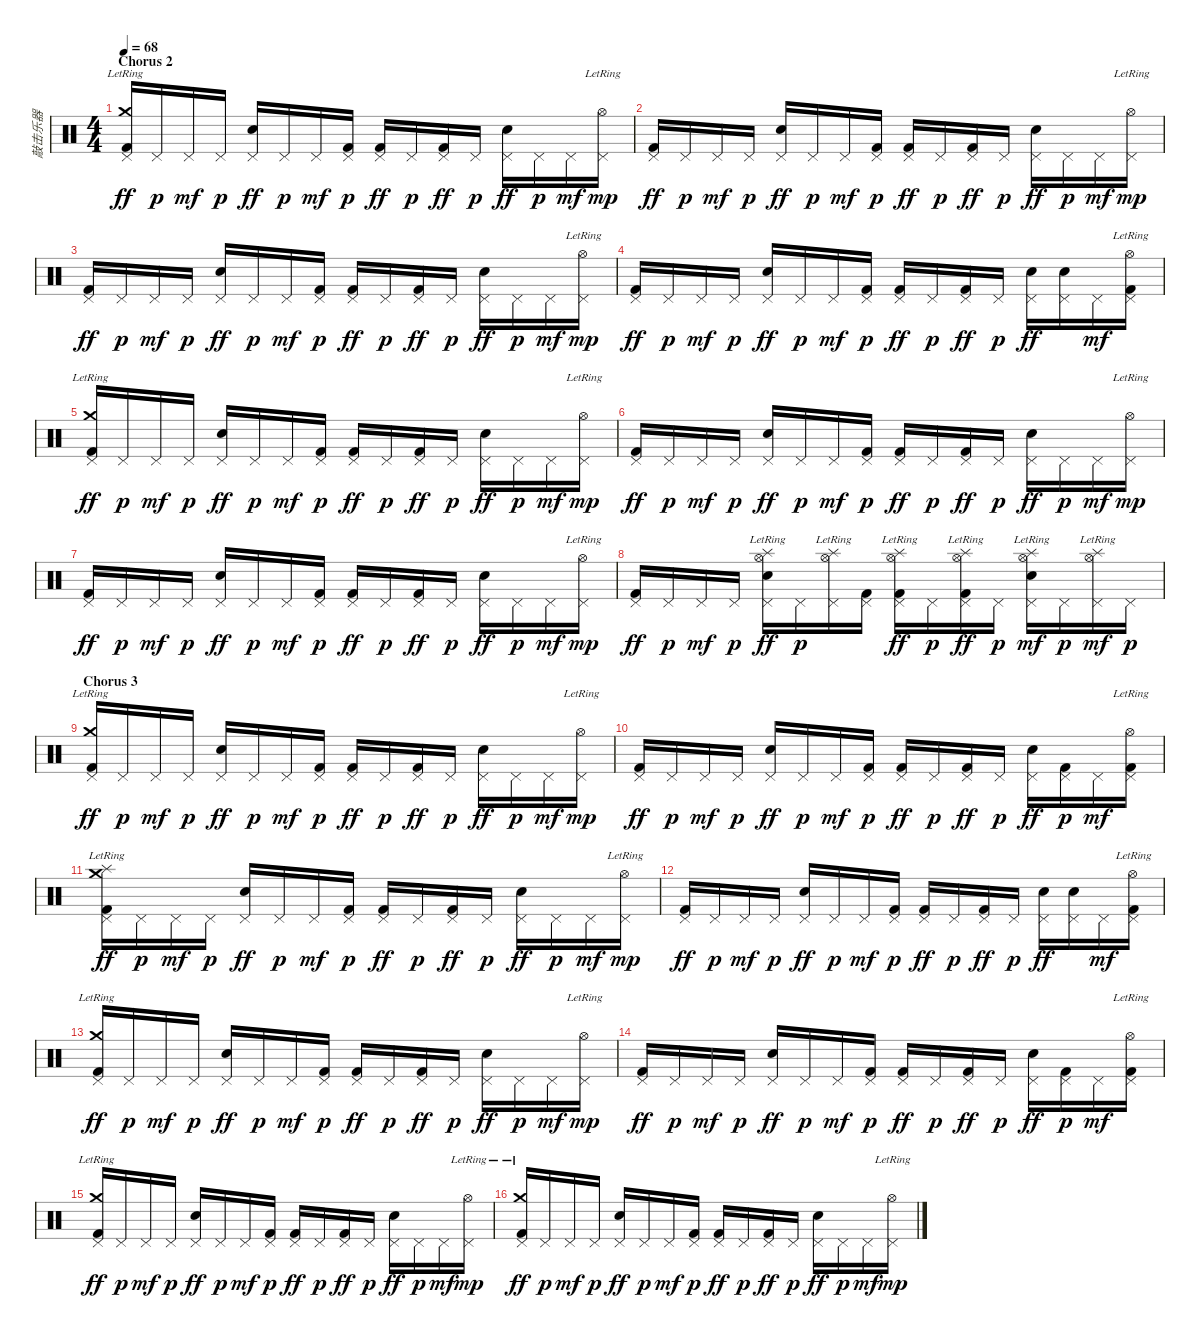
\track ("敲击乐器" "敲击乐器") {instrument percussion}
\staff {score}
\articulation defaults
\ts (4 4)
\section ("" "Chorus 2")
\tempo 68
\clef neutral
\ks c
("Pedal Hi-Hat (hit)" "Crash medium (hit)"{lr} "Kick (hit) 2").16{dy ff} "Pedal Hi-Hat (hit)".16{dy p} "Pedal Hi-Hat (hit)".16{dy mf} "Pedal Hi-Hat (hit)".16{dy p} ("Pedal Hi-Hat (hit)" "Electric Snare (hit)").16{dy ff} "Pedal Hi-Hat (hit)".16{dy p} "Pedal Hi-Hat (hit)".16{dy mf} ("Pedal Hi-Hat (hit)" "Kick (hit) 2").16{dy p} ("Pedal Hi-Hat (hit)" "Kick (hit) 2").16{dy ff} "Pedal Hi-Hat (hit)".16{dy p} ("Pedal Hi-Hat (hit)" "Kick (hit) 2").16{dy ff} "Pedal Hi-Hat (hit)".16{dy p} ("Pedal Hi-Hat (hit)" "Electric Snare (hit)").16{dy ff} "Pedal Hi-Hat (hit)".16{dy p} "Pedal Hi-Hat (hit)".16{dy mf} ("Pedal Hi-Hat (hit)" "Hi-Hat (open)"{lr}).16{dy mp} |
("Pedal Hi-Hat (hit)" "Kick (hit) 2").16{dy ff} "Pedal Hi-Hat (hit)".16{dy p} "Pedal Hi-Hat (hit)".16{dy mf} "Pedal Hi-Hat (hit)".16{dy p} ("Pedal Hi-Hat (hit)" "Electric Snare (hit)").16{dy ff} "Pedal Hi-Hat (hit)".16{dy p} "Pedal Hi-Hat (hit)".16{dy mf} ("Pedal Hi-Hat (hit)" "Kick (hit) 2").16{dy p} ("Pedal Hi-Hat (hit)" "Kick (hit) 2").16{dy ff} "Pedal Hi-Hat (hit)".16{dy p} ("Pedal Hi-Hat (hit)" "Kick (hit) 2").16{dy ff} "Pedal Hi-Hat (hit)".16{dy p} ("Pedal Hi-Hat (hit)" "Electric Snare (hit)").16{dy ff} "Pedal Hi-Hat (hit)".16{dy p} "Pedal Hi-Hat (hit)".16{dy mf} ("Pedal Hi-Hat (hit)" "Hi-Hat (open)"{lr}).16{dy mp} |
("Pedal Hi-Hat (hit)" "Kick (hit) 2").16{dy ff} "Pedal Hi-Hat (hit)".16{dy p} "Pedal Hi-Hat (hit)".16{dy mf} "Pedal Hi-Hat (hit)".16{dy p} ("Pedal Hi-Hat (hit)" "Electric Snare (hit)").16{dy ff} "Pedal Hi-Hat (hit)".16{dy p} "Pedal Hi-Hat (hit)".16{dy mf} ("Pedal Hi-Hat (hit)" "Kick (hit) 2").16{dy p} ("Pedal Hi-Hat (hit)" "Kick (hit) 2").16{dy ff} "Pedal Hi-Hat (hit)".16{dy p} ("Pedal Hi-Hat (hit)" "Kick (hit) 2").16{dy ff} "Pedal Hi-Hat (hit)".16{dy p} ("Pedal Hi-Hat (hit)" "Electric Snare (hit)").16{dy ff} "Pedal Hi-Hat (hit)".16{dy p} "Pedal Hi-Hat (hit)".16{dy mf} ("Pedal Hi-Hat (hit)" "Hi-Hat (open)"{lr}).16{dy mp} |
("Pedal Hi-Hat (hit)" "Kick (hit) 2").16{dy ff} "Pedal Hi-Hat (hit)".16{dy p} "Pedal Hi-Hat (hit)".16{dy mf} "Pedal Hi-Hat (hit)".16{dy p} ("Pedal Hi-Hat (hit)" "Electric Snare (hit)").16{dy ff} "Pedal Hi-Hat (hit)".16{dy p} "Pedal Hi-Hat (hit)".16{dy mf} ("Pedal Hi-Hat (hit)" "Kick (hit) 2").16{dy p} ("Pedal Hi-Hat (hit)" "Kick (hit) 2").16{dy ff} "Pedal Hi-Hat (hit)".16{dy p} ("Pedal Hi-Hat (hit)" "Kick (hit) 2").16{dy ff} "Pedal Hi-Hat (hit)".16{dy p} ("Pedal Hi-Hat (hit)" "Electric Snare (hit)").16{dy ff} ("Pedal Hi-Hat (hit)" "Electric Snare (hit)").16 "Pedal Hi-Hat (hit)".16{dy mf} ("Pedal Hi-Hat (hit)" "Hi-Hat (open)"{lr} "Kick (hit) 2").16 |
("Pedal Hi-Hat (hit)" "Crash medium (hit)"{lr} "Kick (hit) 2").16{dy ff} "Pedal Hi-Hat (hit)".16{dy p} "Pedal Hi-Hat (hit)".16{dy mf} "Pedal Hi-Hat (hit)".16{dy p} ("Pedal Hi-Hat (hit)" "Electric Snare (hit)").16{dy ff} "Pedal Hi-Hat (hit)".16{dy p} "Pedal Hi-Hat (hit)".16{dy mf} ("Pedal Hi-Hat (hit)" "Kick (hit) 2").16{dy p} ("Pedal Hi-Hat (hit)" "Kick (hit) 2").16{dy ff} "Pedal Hi-Hat (hit)".16{dy p} ("Pedal Hi-Hat (hit)" "Kick (hit) 2").16{dy ff} "Pedal Hi-Hat (hit)".16{dy p} ("Pedal Hi-Hat (hit)" "Electric Snare (hit)").16{dy ff} "Pedal Hi-Hat (hit)".16{dy p} "Pedal Hi-Hat (hit)".16{dy mf} ("Pedal Hi-Hat (hit)" "Hi-Hat (open)"{lr}).16{dy mp} |
("Pedal Hi-Hat (hit)" "Kick (hit) 2").16{dy ff} "Pedal Hi-Hat (hit)".16{dy p} "Pedal Hi-Hat (hit)".16{dy mf} "Pedal Hi-Hat (hit)".16{dy p} ("Pedal Hi-Hat (hit)" "Electric Snare (hit)").16{dy ff} "Pedal Hi-Hat (hit)".16{dy p} "Pedal Hi-Hat (hit)".16{dy mf} ("Pedal Hi-Hat (hit)" "Kick (hit) 2").16{dy p} ("Pedal Hi-Hat (hit)" "Kick (hit) 2").16{dy ff} "Pedal Hi-Hat (hit)".16{dy p} ("Pedal Hi-Hat (hit)" "Kick (hit) 2").16{dy ff} "Pedal Hi-Hat (hit)".16{dy p} ("Pedal Hi-Hat (hit)" "Electric Snare (hit)").16{dy ff} "Pedal Hi-Hat (hit)".16{dy p} "Pedal Hi-Hat (hit)".16{dy mf} ("Pedal Hi-Hat (hit)" "Hi-Hat (open)"{lr}).16{dy mp} |
("Pedal Hi-Hat (hit)" "Kick (hit) 2").16{dy ff} "Pedal Hi-Hat (hit)".16{dy p} "Pedal Hi-Hat (hit)".16{dy mf} "Pedal Hi-Hat (hit)".16{dy p} ("Pedal Hi-Hat (hit)" "Electric Snare (hit)").16{dy ff} "Pedal Hi-Hat (hit)".16{dy p} "Pedal Hi-Hat (hit)".16{dy mf} ("Pedal Hi-Hat (hit)" "Kick (hit) 2").16{dy p} ("Pedal Hi-Hat (hit)" "Kick (hit) 2").16{dy ff} "Pedal Hi-Hat (hit)".16{dy p} ("Pedal Hi-Hat (hit)" "Kick (hit) 2").16{dy ff} "Pedal Hi-Hat (hit)".16{dy p} ("Pedal Hi-Hat (hit)" "Electric Snare (hit)").16{dy ff} "Pedal Hi-Hat (hit)".16{dy p} "Pedal Hi-Hat (hit)".16{dy mf} ("Pedal Hi-Hat (hit)" "Hi-Hat (open)"{lr}).16{dy mp} |
("Pedal Hi-Hat (hit)" "Kick (hit) 2").16{dy ff} "Pedal Hi-Hat (hit)".16{dy p} "Pedal Hi-Hat (hit)".16{dy mf} "Pedal Hi-Hat (hit)".16{dy p} ("Pedal Hi-Hat (hit)" "Hi-Hat (open)"{lr} "Electric Snare (hit)" "Splash (hit)"{lr}).16{dy ff} "Pedal Hi-Hat (hit)".16{dy p} ("Pedal Hi-Hat (hit)" "Hi-Hat (open)"{lr} "Splash (hit)"{lr}).16 ("Pedal Hi-Hat (hit)" "Kick (hit) 2").16 ("Pedal Hi-Hat (hit)" "Hi-Hat (open)"{lr} "Splash (hit)"{lr} "Kick (hit) 2").16{dy ff} "Pedal Hi-Hat (hit)".16{dy p} ("Pedal Hi-Hat (hit)" "Hi-Hat (open)"{lr} "Splash (hit)"{lr} "Kick (hit) 2").16{dy ff} "Pedal Hi-Hat (hit)".16{dy p} ("Pedal Hi-Hat (hit)" "Hi-Hat (open)"{lr} "Electric Snare (hit)" "Splash (hit)"{lr}).16{dy mf} "Pedal Hi-Hat (hit)".16{dy p} ("Pedal Hi-Hat (hit)" "Hi-Hat (open)"{lr} "Splash (hit)"{lr}).16{dy mf} "Pedal Hi-Hat (hit)".16{dy p} |
\section ("" "Chorus 3")
("Pedal Hi-Hat (hit)" "Crash medium (hit)"{lr} "Kick (hit) 2").16{dy ff} "Pedal Hi-Hat (hit)".16{dy p} "Pedal Hi-Hat (hit)".16{dy mf} "Pedal Hi-Hat (hit)".16{dy p} ("Pedal Hi-Hat (hit)" "Electric Snare (hit)").16{dy ff} "Pedal Hi-Hat (hit)".16{dy p} "Pedal Hi-Hat (hit)".16{dy mf} ("Pedal Hi-Hat (hit)" "Kick (hit) 2").16{dy p} ("Pedal Hi-Hat (hit)" "Kick (hit) 2").16{dy ff} "Pedal Hi-Hat (hit)".16{dy p} ("Pedal Hi-Hat (hit)" "Kick (hit) 2").16{dy ff} "Pedal Hi-Hat (hit)".16{dy p} ("Pedal Hi-Hat (hit)" "Electric Snare (hit)").16{dy ff} "Pedal Hi-Hat (hit)".16{dy p} "Pedal Hi-Hat (hit)".16{dy mf} ("Pedal Hi-Hat (hit)" "Hi-Hat (open)"{lr}).16{dy mp} |
("Pedal Hi-Hat (hit)" "Kick (hit) 2").16{dy ff} "Pedal Hi-Hat (hit)".16{dy p} "Pedal Hi-Hat (hit)".16{dy mf} "Pedal Hi-Hat (hit)".16{dy p} ("Pedal Hi-Hat (hit)" "Electric Snare (hit)").16{dy ff} "Pedal Hi-Hat (hit)".16{dy p} "Pedal Hi-Hat (hit)".16{dy mf} ("Pedal Hi-Hat (hit)" "Kick (hit) 2").16{dy p} ("Pedal Hi-Hat (hit)" "Kick (hit) 2").16{dy ff} "Pedal Hi-Hat (hit)".16{dy p} ("Pedal Hi-Hat (hit)" "Kick (hit) 2").16{dy ff} "Pedal Hi-Hat (hit)".16{dy p} ("Pedal Hi-Hat (hit)" "Electric Snare (hit)").16{dy ff} ("Pedal Hi-Hat (hit)" "Kick (hit) 2").16{dy p} "Pedal Hi-Hat (hit)".16{dy mf} ("Pedal Hi-Hat (hit)" "Hi-Hat (open)"{lr} "Kick (hit) 2").16 |
("Pedal Hi-Hat (hit)" "Splash (hit)"{lr} "Crash medium (hit)"{lr} "Kick (hit) 2").16{dy ff} "Pedal Hi-Hat (hit)".16{dy p} "Pedal Hi-Hat (hit)".16{dy mf} "Pedal Hi-Hat (hit)".16{dy p} ("Pedal Hi-Hat (hit)" "Electric Snare (hit)").16{dy ff} "Pedal Hi-Hat (hit)".16{dy p} "Pedal Hi-Hat (hit)".16{dy mf} ("Pedal Hi-Hat (hit)" "Kick (hit) 2").16{dy p} ("Pedal Hi-Hat (hit)" "Kick (hit) 2").16{dy ff} "Pedal Hi-Hat (hit)".16{dy p} ("Pedal Hi-Hat (hit)" "Kick (hit) 2").16{dy ff} "Pedal Hi-Hat (hit)".16{dy p} ("Pedal Hi-Hat (hit)" "Electric Snare (hit)").16{dy ff} "Pedal Hi-Hat (hit)".16{dy p} "Pedal Hi-Hat (hit)".16{dy mf} ("Pedal Hi-Hat (hit)" "Hi-Hat (open)"{lr}).16{dy mp} |
("Pedal Hi-Hat (hit)" "Kick (hit) 2").16{dy ff} "Pedal Hi-Hat (hit)".16{dy p} "Pedal Hi-Hat (hit)".16{dy mf} "Pedal Hi-Hat (hit)".16{dy p} ("Pedal Hi-Hat (hit)" "Electric Snare (hit)").16{dy ff} "Pedal Hi-Hat (hit)".16{dy p} "Pedal Hi-Hat (hit)".16{dy mf} ("Pedal Hi-Hat (hit)" "Kick (hit) 2").16{dy p} ("Pedal Hi-Hat (hit)" "Kick (hit) 2").16{dy ff} "Pedal Hi-Hat (hit)".16{dy p} ("Pedal Hi-Hat (hit)" "Kick (hit) 2").16{dy ff} "Pedal Hi-Hat (hit)".16{dy p} ("Pedal Hi-Hat (hit)" "Electric Snare (hit)").16{dy ff} ("Pedal Hi-Hat (hit)" "Electric Snare (hit)").16 "Pedal Hi-Hat (hit)".16{dy mf} ("Pedal Hi-Hat (hit)" "Hi-Hat (open)"{lr} "Kick (hit) 2").16 |
("Pedal Hi-Hat (hit)" "Crash medium (hit)"{lr} "Kick (hit) 2").16{dy ff} "Pedal Hi-Hat (hit)".16{dy p} "Pedal Hi-Hat (hit)".16{dy mf} "Pedal Hi-Hat (hit)".16{dy p} ("Pedal Hi-Hat (hit)" "Electric Snare (hit)").16{dy ff} "Pedal Hi-Hat (hit)".16{dy p} "Pedal Hi-Hat (hit)".16{dy mf} ("Pedal Hi-Hat (hit)" "Kick (hit) 2").16{dy p} ("Pedal Hi-Hat (hit)" "Kick (hit) 2").16{dy ff} "Pedal Hi-Hat (hit)".16{dy p} ("Pedal Hi-Hat (hit)" "Kick (hit) 2").16{dy ff} "Pedal Hi-Hat (hit)".16{dy p} ("Pedal Hi-Hat (hit)" "Electric Snare (hit)").16{dy ff} "Pedal Hi-Hat (hit)".16{dy p} "Pedal Hi-Hat (hit)".16{dy mf} ("Pedal Hi-Hat (hit)" "Hi-Hat (open)"{lr}).16{dy mp} |
("Pedal Hi-Hat (hit)" "Kick (hit) 2").16{dy ff} "Pedal Hi-Hat (hit)".16{dy p} "Pedal Hi-Hat (hit)".16{dy mf} "Pedal Hi-Hat (hit)".16{dy p} ("Pedal Hi-Hat (hit)" "Electric Snare (hit)").16{dy ff} "Pedal Hi-Hat (hit)".16{dy p} "Pedal Hi-Hat (hit)".16{dy mf} ("Pedal Hi-Hat (hit)" "Kick (hit) 2").16{dy p} ("Pedal Hi-Hat (hit)" "Kick (hit) 2").16{dy ff} "Pedal Hi-Hat (hit)".16{dy p} ("Pedal Hi-Hat (hit)" "Kick (hit) 2").16{dy ff} "Pedal Hi-Hat (hit)".16{dy p} ("Pedal Hi-Hat (hit)" "Electric Snare (hit)").16{dy ff} ("Pedal Hi-Hat (hit)" "Kick (hit) 2").16{dy p} "Pedal Hi-Hat (hit)".16{dy mf} ("Pedal Hi-Hat (hit)" "Hi-Hat (open)"{lr} "Kick (hit) 2").16 |
("Pedal Hi-Hat (hit)" "Crash medium (hit)"{lr} "Kick (hit) 2").16{dy ff} "Pedal Hi-Hat (hit)".16{dy p} "Pedal Hi-Hat (hit)".16{dy mf} "Pedal Hi-Hat (hit)".16{dy p} ("Pedal Hi-Hat (hit)" "Electric Snare (hit)").16{dy ff} "Pedal Hi-Hat (hit)".16{dy p} "Pedal Hi-Hat (hit)".16{dy mf} ("Pedal Hi-Hat (hit)" "Kick (hit) 2").16{dy p} ("Pedal Hi-Hat (hit)" "Kick (hit) 2").16{dy ff} "Pedal Hi-Hat (hit)".16{dy p} ("Pedal Hi-Hat (hit)" "Kick (hit) 2").16{dy ff} "Pedal Hi-Hat (hit)".16{dy p} ("Pedal Hi-Hat (hit)" "Electric Snare (hit)").16{dy ff} "Pedal Hi-Hat (hit)".16{dy p} "Pedal Hi-Hat (hit)".16{dy mf} ("Pedal Hi-Hat (hit)" "Hi-Hat (open)"{lr}).16{dy mp} |
("Pedal Hi-Hat (hit)" "Crash medium (hit)"{lr} "Kick (hit) 2").16{dy ff} "Pedal Hi-Hat (hit)".16{dy p} "Pedal Hi-Hat (hit)".16{dy mf} "Pedal Hi-Hat (hit)".16{dy p} ("Pedal Hi-Hat (hit)" "Electric Snare (hit)").16{dy ff} "Pedal Hi-Hat (hit)".16{dy p} "Pedal Hi-Hat (hit)".16{dy mf} ("Pedal Hi-Hat (hit)" "Kick (hit) 2").16{dy p} ("Pedal Hi-Hat (hit)" "Kick (hit) 2").16{dy ff} "Pedal Hi-Hat (hit)".16{dy p} ("Pedal Hi-Hat (hit)" "Kick (hit) 2").16{dy ff} "Pedal Hi-Hat (hit)".16{dy p} ("Pedal Hi-Hat (hit)" "Electric Snare (hit)").16{dy ff} "Pedal Hi-Hat (hit)".16{dy p} "Pedal Hi-Hat (hit)".16{dy mf} ("Pedal Hi-Hat (hit)" "Hi-Hat (open)"{lr}).16{dy mp}
